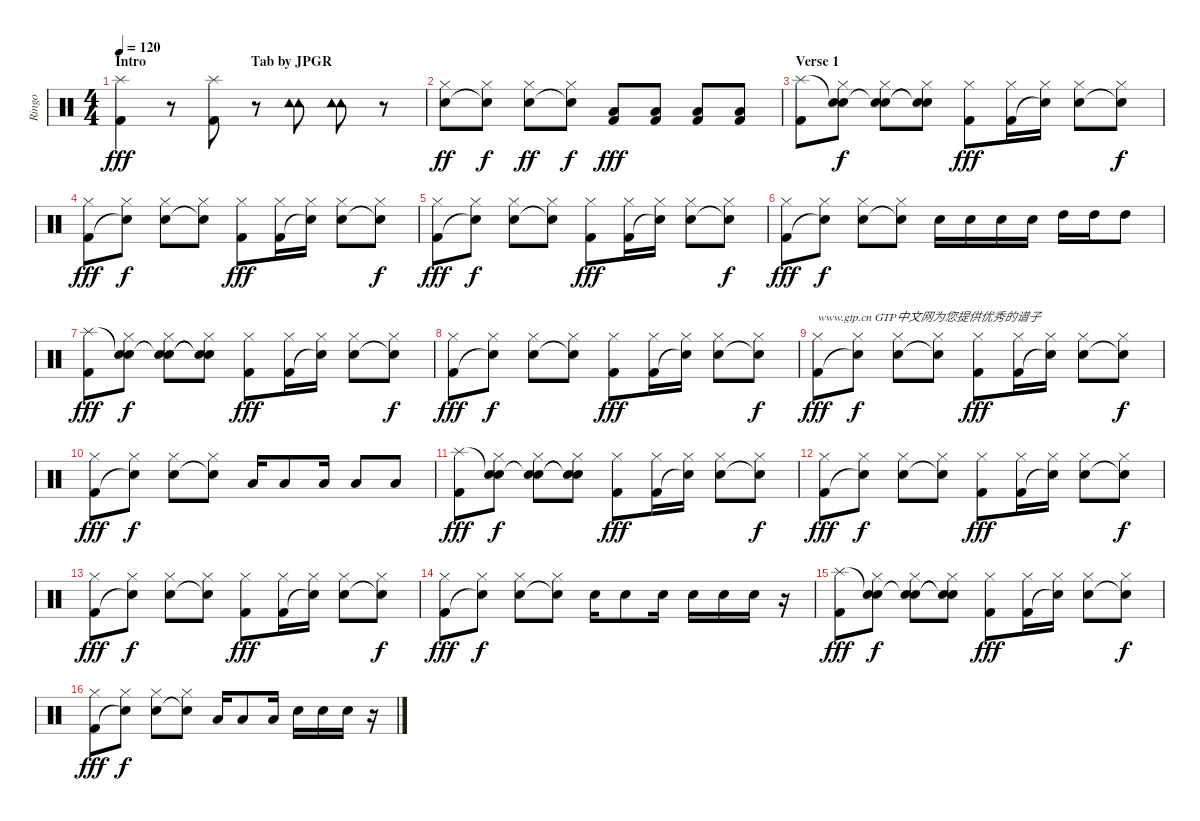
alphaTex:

\track ("Ringo" "Ringo") {instrument percussion}
\staff {score}
\articulation defaults
\ts (4 4)
\section ("" "Intro                              Tab by JPGR")
\tempo 120
\clef neutral
\ks c
("Splash (hit)" "Kick (hit) 2").4{dy fff} r.8 ("Splash (hit)" "Kick (hit) 2").8 r.8 ("Tambourine (hit)" "Tambourine (hit)").8 ("Tambourine (hit)" "Tambourine (hit)").8 r.8 |
("Hi-Hat (closed)" "Snare (hit) 2").8{dy ff} ("Hi-Hat (closed)" "Snare (hit)"{t}).8{dy f} ("Hi-Hat (closed)" "Snare (hit) 2").8{dy ff} ("Hi-Hat (closed)" "Snare (hit)"{t}).8{dy f} ("Low Floor Tom (hit)" "Kick (hit) 2").8{dy fff} ("Low Floor Tom (hit)" "Kick (hit) 2").8 ("Low Floor Tom (hit)" "Kick (hit) 2").8 ("Low Floor Tom (hit)" "Kick (hit) 2").8 |
\section ("" "Verse 1")
("Splash (hit)" "Kick (hit) 2").8 ("Snare (hit)"{t} "Hi-Hat (closed)" "Snare (hit)").8{dy f} ("Snare (hit)"{t} "Hi-Hat (closed)" "Snare (hit) 2").8 ("Snare (hit)"{t} "Hi-Hat (closed)" "Snare (hit)"{t}).8 ("Hi-Hat (closed)" "Kick (hit) 2").8{dy fff} ("Hi-Hat (closed)" "Kick (hit) 2").16 ("Hi-Hat (closed)" "Snare (hit)"{t}).16 ("Hi-Hat (closed)" "Snare (hit) 2").8 ("Hi-Hat (closed)" "Snare (hit)"{t}).8{dy f} |
("Hi-Hat (closed)" "Kick (hit) 2").8{dy fff} ("Hi-Hat (closed)" "Snare (hit)"{t}).8{dy f} ("Hi-Hat (closed)" "Snare (hit) 2").8 ("Hi-Hat (closed)" "Snare (hit)"{t}).8 ("Hi-Hat (closed)" "Kick (hit) 2").8{dy fff} ("Hi-Hat (closed)" "Kick (hit) 2").16 ("Hi-Hat (closed)" "Snare (hit)"{t}).16 ("Hi-Hat (closed)" "Snare (hit) 2").8 ("Hi-Hat (closed)" "Snare (hit)"{t}).8{dy f} |
("Hi-Hat (closed)" "Kick (hit) 2").8{dy fff} ("Hi-Hat (closed)" "Snare (hit)"{t}).8{dy f} ("Hi-Hat (closed)" "Snare (hit) 2").8 ("Hi-Hat (closed)" "Snare (hit)"{t}).8 ("Hi-Hat (closed)" "Kick (hit) 2").8{dy fff} ("Hi-Hat (closed)" "Kick (hit) 2").16 ("Hi-Hat (closed)" "Snare (hit)"{t}).16 ("Hi-Hat (closed)" "Snare (hit) 2").8 ("Hi-Hat (closed)" "Snare (hit)"{t}).8{dy f} |
("Hi-Hat (closed)" "Kick (hit) 2").8{dy fff} ("Hi-Hat (closed)" "Snare (hit)"{t}).8{dy f} ("Hi-Hat (closed)" "Snare (hit) 2").8 ("Hi-Hat (closed)" "Snare (hit)"{t}).8 "Snare (hit) 2".16 "Snare (hit) 2".16 "Snare (hit) 2".16 "Snare (hit) 2".16 "High Tom (hit)".16 "High Tom (hit)".16 "High Tom (hit)".8 |
("Splash (hit)" "Kick (hit) 2").8{dy fff} ("Snare (hit)"{t} "Hi-Hat (closed)" "Snare (hit)").8{dy f} ("Snare (hit)"{t} "Hi-Hat (closed)" "Snare (hit) 2").8 ("Snare (hit)"{t} "Hi-Hat (closed)" "Snare (hit)"{t}).8 ("Hi-Hat (closed)" "Kick (hit) 2").8{dy fff} ("Hi-Hat (closed)" "Kick (hit) 2").16 ("Hi-Hat (closed)" "Snare (hit)"{t}).16 ("Hi-Hat (closed)" "Snare (hit) 2").8 ("Hi-Hat (closed)" "Snare (hit)"{t}).8{dy f} |
("Hi-Hat (closed)" "Kick (hit) 2").8{dy fff} ("Hi-Hat (closed)" "Snare (hit)"{t}).8{dy f} ("Hi-Hat (closed)" "Snare (hit) 2").8 ("Hi-Hat (closed)" "Snare (hit)"{t}).8 ("Hi-Hat (closed)" "Kick (hit) 2").8{dy fff} ("Hi-Hat (closed)" "Kick (hit) 2").16 ("Hi-Hat (closed)" "Snare (hit)"{t}).16 ("Hi-Hat (closed)" "Snare (hit) 2").8 ("Hi-Hat (closed)" "Snare (hit)"{t}).8{dy f} |
("Hi-Hat (closed)" "Kick (hit) 2").8{txt "www.gtp.cn GTP中文网为您提供优秀的谱子" dy fff} ("Hi-Hat (closed)" "Snare (hit)"{t}).8{dy f} ("Hi-Hat (closed)" "Snare (hit) 2").8 ("Hi-Hat (closed)" "Snare (hit)"{t}).8 ("Hi-Hat (closed)" "Kick (hit) 2").8{dy fff} ("Hi-Hat (closed)" "Kick (hit) 2").16 ("Hi-Hat (closed)" "Snare (hit)"{t}).16 ("Hi-Hat (closed)" "Snare (hit) 2").8 ("Hi-Hat (closed)" "Snare (hit)"{t}).8{dy f} |
("Hi-Hat (closed)" "Kick (hit) 2").8{dy fff} ("Hi-Hat (closed)" "Snare (hit)"{t}).8{dy f} ("Hi-Hat (closed)" "Snare (hit) 2").8 ("Hi-Hat (closed)" "Snare (hit)"{t}).8 "Low Floor Tom (hit)".16 "Low Floor Tom (hit)".8 "Low Floor Tom (hit)".16 "Low Floor Tom (hit)".8 "Low Floor Tom (hit)".8 |
("Splash (hit)" "Kick (hit) 2").8{dy fff} ("Snare (hit)"{t} "Hi-Hat (closed)" "Snare (hit)").8{dy f} ("Snare (hit)"{t} "Hi-Hat (closed)" "Snare (hit) 2").8 ("Snare (hit)"{t} "Hi-Hat (closed)" "Snare (hit)"{t}).8 ("Hi-Hat (closed)" "Kick (hit) 2").8{dy fff} ("Hi-Hat (closed)" "Kick (hit) 2").16 ("Hi-Hat (closed)" "Snare (hit)"{t}).16 ("Hi-Hat (closed)" "Snare (hit) 2").8 ("Hi-Hat (closed)" "Snare (hit)"{t}).8{dy f} |
("Hi-Hat (closed)" "Kick (hit) 2").8{dy fff} ("Hi-Hat (closed)" "Snare (hit)"{t}).8{dy f} ("Hi-Hat (closed)" "Snare (hit) 2").8 ("Hi-Hat (closed)" "Snare (hit)"{t}).8 ("Hi-Hat (closed)" "Kick (hit) 2").8{dy fff} ("Hi-Hat (closed)" "Kick (hit) 2").16 ("Hi-Hat (closed)" "Snare (hit)"{t}).16 ("Hi-Hat (closed)" "Snare (hit) 2").8 ("Hi-Hat (closed)" "Snare (hit)"{t}).8{dy f} |
("Hi-Hat (closed)" "Kick (hit) 2").8{dy fff} ("Hi-Hat (closed)" "Snare (hit)"{t}).8{dy f} ("Hi-Hat (closed)" "Snare (hit) 2").8 ("Hi-Hat (closed)" "Snare (hit)"{t}).8 ("Hi-Hat (closed)" "Kick (hit) 2").8{dy fff} ("Hi-Hat (closed)" "Kick (hit) 2").16 ("Hi-Hat (closed)" "Snare (hit)"{t}).16 ("Hi-Hat (closed)" "Snare (hit) 2").8 ("Hi-Hat (closed)" "Snare (hit)"{t}).8{dy f} |
("Hi-Hat (closed)" "Kick (hit) 2").8{dy fff} ("Hi-Hat (closed)" "Snare (hit)"{t}).8{dy f} ("Hi-Hat (closed)" "Snare (hit) 2").8 ("Hi-Hat (closed)" "Snare (hit)"{t}).8 "Snare (hit) 2".16 "Snare (hit) 2".8 "Snare (hit) 2".16 "Snare (hit) 2".16 "Snare (hit) 2".16 "Snare (hit) 2".16 r.16 |
("Splash (hit)" "Kick (hit) 2").8{dy fff} ("Snare (hit)"{t} "Hi-Hat (closed)" "Snare (hit)").8{dy f} ("Snare (hit)"{t} "Hi-Hat (closed)" "Snare (hit) 2").8 ("Snare (hit)"{t} "Hi-Hat (closed)" "Snare (hit)"{t}).8 ("Hi-Hat (closed)" "Kick (hit) 2").8{dy fff} ("Hi-Hat (closed)" "Kick (hit) 2").16 ("Hi-Hat (closed)" "Snare (hit)"{t}).16 ("Hi-Hat (closed)" "Snare (hit) 2").8 ("Hi-Hat (closed)" "Snare (hit)"{t}).8{dy f} |
("Hi-Hat (closed)" "Kick (hit) 2").8{dy fff} ("Hi-Hat (closed)" "Snare (hit)"{t}).8{dy f} ("Hi-Hat (closed)" "Snare (hit) 2").8 ("Hi-Hat (closed)" "Snare (hit)"{t}).8 "Low Floor Tom (hit)".16 "Low Floor Tom (hit)".8 "Low Floor Tom (hit)".16 "Snare (hit) 2".16 "Snare (hit) 2".16 "Snare (hit) 2".16 r.16
